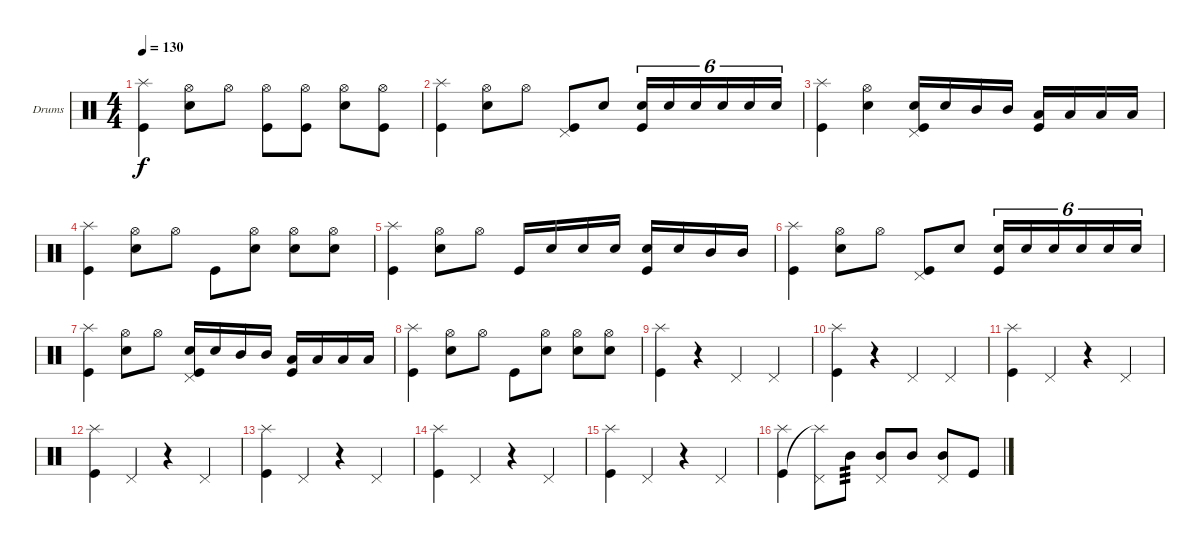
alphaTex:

\defaultSystemsLayout 4
\bracketExtendMode groupsimilarinstruments
\firstSystemTrackNameOrientation horizontal
\otherSystemsTrackNameOrientation horizontal
\track ("Inazawa" "Drums") {instrument percussion}
\staff {score}
\articulation defaults
\ts (4 4)
\tempo 130
\clef neutral
\ks c
("Kick (hit)" "Splash (hit)").4{dy f} ("Hi-Hat (open)" "Snare (hit) 2").8 "Hi-Hat (open)".8 ("Hi-Hat (open)" "Kick (hit)").8 ("Hi-Hat (open)" "Kick (hit)").8 ("Hi-Hat (open)" "Snare (hit) 2").8 ("Hi-Hat (open)" "Kick (hit)").8 |
("Kick (hit)" "Splash (hit)").4 ("Hi-Hat (open)" "Snare (hit) 2").8 "Hi-Hat (open)".8 ("Kick (hit)" "Pedal Hi-Hat (hit)").8 "Snare (hit) 2".8 ("Snare (hit) 2" "Kick (hit)").16{tu (6 4)} "Snare (hit) 2".16{tu (6 4)} "Snare (hit) 2".16{tu (6 4)} "Snare (hit) 2".16{tu (6 4)} "Snare (hit) 2".16{tu (6 4)} "Snare (hit) 2".16{tu (6 4)} |
("Kick (hit)" "Splash (hit)").4 ("Snare (hit) 2" "Hi-Hat (open)").4 ("Snare (hit) 2" "Kick (hit)" "Pedal Hi-Hat (hit)").16 "Snare (hit) 2".16 "Mid Tom (hit)".16 "Mid Tom (hit)".16 ("Low Tom (hit)" "Kick (hit)").16 "Low Tom (hit)".16 "Low Tom (hit)".16 "Low Tom (hit)".16 |
("Kick (hit)" "Splash (hit)").4 ("Hi-Hat (open)" "Snare (hit) 2").8 "Hi-Hat (open)".8 "Kick (hit)".8 ("Snare (hit) 2" "Hi-Hat (open)").8 ("Hi-Hat (open)" "Snare (hit) 2").8 ("Snare (hit) 2" "Hi-Hat (open)").8 |
("Splash (hit)" "Kick (hit)").4 ("Snare (hit) 2" "Hi-Hat (open)").8 "Hi-Hat (open)".8 "Kick (hit)".16 "Snare (hit) 2".16 "Snare (hit) 2".16 "Snare (hit) 2".16 ("Snare (hit) 2" "Kick (hit)").16 "Snare (hit) 2".16 "Mid Tom (hit)".16 "Mid Tom (hit)".16 |
("Kick (hit)" "Splash (hit)").4 ("Hi-Hat (open)" "Snare (hit) 2").8 "Hi-Hat (open)".8 ("Kick (hit)" "Pedal Hi-Hat (hit)").8 "Snare (hit) 2".8 ("Snare (hit) 2" "Kick (hit)").16{tu (6 4)} "Snare (hit) 2".16{tu (6 4)} "Snare (hit) 2".16{tu (6 4)} "Snare (hit) 2".16{tu (6 4)} "Snare (hit) 2".16{tu (6 4)} "Snare (hit) 2".16{tu (6 4)} |
("Kick (hit)" "Splash (hit)").4 ("Hi-Hat (open)" "Snare (hit) 2").8 "Hi-Hat (open)".8 ("Snare (hit) 2" "Kick (hit)" "Pedal Hi-Hat (hit)").16 "Snare (hit) 2".16 "Mid Tom (hit)".16 "Mid Tom (hit)".16 ("Low Tom (hit)" "Kick (hit)").16 "Low Tom (hit)".16 "Low Tom (hit)".16 "Low Tom (hit)".16 |
("Kick (hit)" "Splash (hit)").4 ("Hi-Hat (open)" "Snare (hit) 2").8 "Hi-Hat (open)".8 "Kick (hit)".8 ("Snare (hit) 2" "Hi-Hat (open)").8 ("Hi-Hat (open)" "Snare (hit) 2").8 ("Hi-Hat (open)" "Snare (hit) 2").8 |
("Splash (hit)" "Kick (hit)").4 r.4 "Pedal Hi-Hat (hit)".4 "Pedal Hi-Hat (hit)".4 |
("Splash (hit)" "Kick (hit)").4 r.4 "Pedal Hi-Hat (hit)".4 "Pedal Hi-Hat (hit)".4 |
("Kick (hit)" "Splash (hit)").4 "Pedal Hi-Hat (hit)".4 r.4 "Pedal Hi-Hat (hit)".4 |
("Kick (hit)" "Splash (hit)").4 "Pedal Hi-Hat (hit)".4 r.4 "Pedal Hi-Hat (hit)".4 |
("Kick (hit)" "Splash (hit)").4 "Pedal Hi-Hat (hit)".4 r.4 "Pedal Hi-Hat (hit)".4 |
("Kick (hit)" "Splash (hit)").4 "Pedal Hi-Hat (hit)".4 r.4 "Pedal Hi-Hat (hit)".4 |
("Kick (hit)" "Splash (hit)").4 "Pedal Hi-Hat (hit)".4 r.4 "Pedal Hi-Hat (hit)".4 |
("Kick (hit)" "Splash (hit)").4 ("Splash (hit)"{t} "Pedal Hi-Hat (hit)").8 "Mid Tom (hit)".8{tp 3} ("Mid Tom (hit)" "Pedal Hi-Hat (hit)").8 "Mid Tom (hit)".8 ("Mid Tom (hit)" "Pedal Hi-Hat (hit)").8 "Kick (hit)".8
